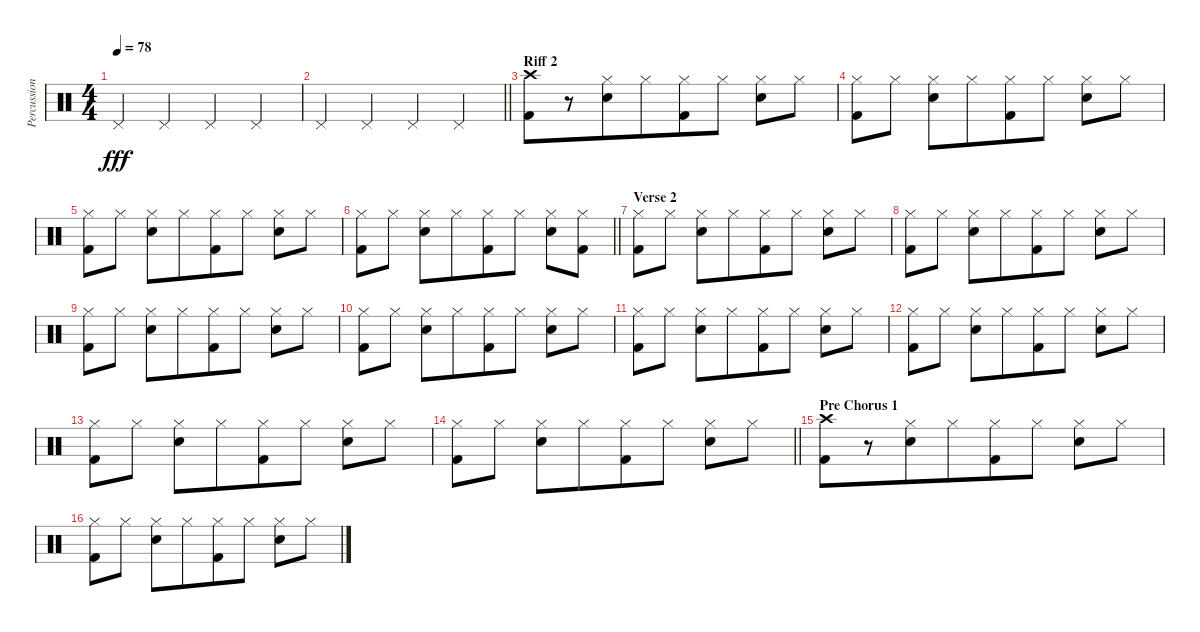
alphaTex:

\track ("Percussion" "Percussion") {instrument percussion}
\staff {score}
\articulation defaults
\ts (4 4)
\tempo 78
\clef neutral
\ks c "Pedal Hi-Hat (hit)".4{dy fff} "Pedal Hi-Hat (hit)".4 "Pedal Hi-Hat (hit)".4 "Pedal Hi-Hat (hit)".4
|
\barLineRight lightlight "Pedal Hi-Hat (hit)".4 "Pedal Hi-Hat (hit)".4{beam merge} "Pedal Hi-Hat (hit)".4 "Pedal Hi-Hat (hit)".4
|
\section ("" "Riff 2")
("Kick (hit) 2" "Crash high (hit)").8{beam merge} r.8 ("Electric Snare (hit)" "Hi-Hat (closed)").8 "Hi-Hat (closed)".8{beam merge} ("Kick (hit) 2" "Hi-Hat (closed)").8 "Hi-Hat (closed)".8 ("Electric Snare (hit)" "Hi-Hat (closed)").8{beam merge} "Hi-Hat (closed)".8 |
("Kick (hit) 2" "Hi-Hat (closed)").8{beam merge} "Hi-Hat (closed)".8 ("Electric Snare (hit)" "Hi-Hat (closed)").8 "Hi-Hat (closed)".8{beam merge} ("Kick (hit) 2" "Hi-Hat (closed)").8 "Hi-Hat (closed)".8 ("Electric Snare (hit)" "Hi-Hat (closed)").8{beam merge} "Hi-Hat (closed)".8 |
("Kick (hit) 2" "Hi-Hat (closed)").8{beam merge} "Hi-Hat (closed)".8 ("Electric Snare (hit)" "Hi-Hat (closed)").8 "Hi-Hat (closed)".8{beam merge} ("Kick (hit) 2" "Hi-Hat (closed)").8 "Hi-Hat (closed)".8 ("Electric Snare (hit)" "Hi-Hat (closed)").8{beam merge} "Hi-Hat (closed)".8 |
\barLineRight lightlight
("Kick (hit) 2" "Hi-Hat (closed)").8{beam merge} "Hi-Hat (closed)".8 ("Electric Snare (hit)" "Hi-Hat (closed)").8 "Hi-Hat (closed)".8{beam merge} ("Kick (hit) 2" "Hi-Hat (closed)").8 "Hi-Hat (closed)".8 ("Electric Snare (hit)" "Hi-Hat (closed)").8{beam merge} ("Kick (hit) 2" "Hi-Hat (closed)").8 |
\section ("" "Verse 2")
("Kick (hit) 2" "Hi-Hat (closed)").8{beam merge} "Hi-Hat (closed)".8 ("Electric Snare (hit)" "Hi-Hat (closed)").8 "Hi-Hat (closed)".8{beam merge} ("Kick (hit) 2" "Hi-Hat (closed)").8 "Hi-Hat (closed)".8 ("Electric Snare (hit)" "Hi-Hat (closed)").8{beam merge} "Hi-Hat (closed)".8 |
("Kick (hit) 2" "Hi-Hat (closed)").8{beam merge} "Hi-Hat (closed)".8 ("Electric Snare (hit)" "Hi-Hat (closed)").8 "Hi-Hat (closed)".8{beam merge} ("Kick (hit) 2" "Hi-Hat (closed)").8 "Hi-Hat (closed)".8 ("Electric Snare (hit)" "Hi-Hat (closed)").8{beam merge} "Hi-Hat (closed)".8 |
("Kick (hit) 2" "Hi-Hat (closed)").8{beam merge} "Hi-Hat (closed)".8 ("Electric Snare (hit)" "Hi-Hat (closed)").8 "Hi-Hat (closed)".8{beam merge} ("Kick (hit) 2" "Hi-Hat (closed)").8 "Hi-Hat (closed)".8 ("Electric Snare (hit)" "Hi-Hat (closed)").8{beam merge} "Hi-Hat (closed)".8 |
("Kick (hit) 2" "Hi-Hat (closed)").8{beam merge} "Hi-Hat (closed)".8 ("Electric Snare (hit)" "Hi-Hat (closed)").8 "Hi-Hat (closed)".8{beam merge} ("Kick (hit) 2" "Hi-Hat (closed)").8 "Hi-Hat (closed)".8 ("Electric Snare (hit)" "Hi-Hat (closed)").8{beam merge} "Hi-Hat (closed)".8 |
("Kick (hit) 2" "Hi-Hat (closed)").8{beam merge} "Hi-Hat (closed)".8 ("Electric Snare (hit)" "Hi-Hat (closed)").8 "Hi-Hat (closed)".8{beam merge} ("Kick (hit) 2" "Hi-Hat (closed)").8 "Hi-Hat (closed)".8 ("Electric Snare (hit)" "Hi-Hat (closed)").8{beam merge} "Hi-Hat (closed)".8 |
("Kick (hit) 2" "Hi-Hat (closed)").8{beam merge} "Hi-Hat (closed)".8 ("Electric Snare (hit)" "Hi-Hat (closed)").8 "Hi-Hat (closed)".8{beam merge} ("Kick (hit) 2" "Hi-Hat (closed)").8 "Hi-Hat (closed)".8 ("Electric Snare (hit)" "Hi-Hat (closed)").8{beam merge} "Hi-Hat (closed)".8 |
("Kick (hit) 2" "Hi-Hat (closed)").8{beam merge} "Hi-Hat (closed)".8 ("Electric Snare (hit)" "Hi-Hat (closed)").8 "Hi-Hat (closed)".8{beam merge} ("Kick (hit) 2" "Hi-Hat (closed)").8 "Hi-Hat (closed)".8 ("Electric Snare (hit)" "Hi-Hat (closed)").8{beam merge} "Hi-Hat (closed)".8 |
\barLineRight lightlight
("Kick (hit) 2" "Hi-Hat (closed)").8{beam merge} "Hi-Hat (closed)".8 ("Electric Snare (hit)" "Hi-Hat (closed)").8 "Hi-Hat (closed)".8{beam merge} ("Kick (hit) 2" "Hi-Hat (closed)").8 "Hi-Hat (closed)".8 ("Electric Snare (hit)" "Hi-Hat (closed)").8{beam merge} "Hi-Hat (closed)".8 |
\section ("" "Pre Chorus 1")
("Kick (hit) 2" "Crash high (hit)").8{beam merge} r.8 ("Electric Snare (hit)" "Hi-Hat (closed)").8 "Hi-Hat (closed)".8{beam merge} ("Kick (hit) 2" "Hi-Hat (closed)").8 "Hi-Hat (closed)".8 ("Electric Snare (hit)" "Hi-Hat (closed)").8{beam merge} "Hi-Hat (closed)".8 |
("Kick (hit) 2" "Hi-Hat (closed)").8{beam merge} "Hi-Hat (closed)".8 ("Electric Snare (hit)" "Hi-Hat (closed)").8 "Hi-Hat (closed)".8{beam merge} ("Kick (hit) 2" "Hi-Hat (closed)").8 "Hi-Hat (closed)".8 ("Electric Snare (hit)" "Hi-Hat (closed)").8{beam merge} "Hi-Hat (closed)".8
